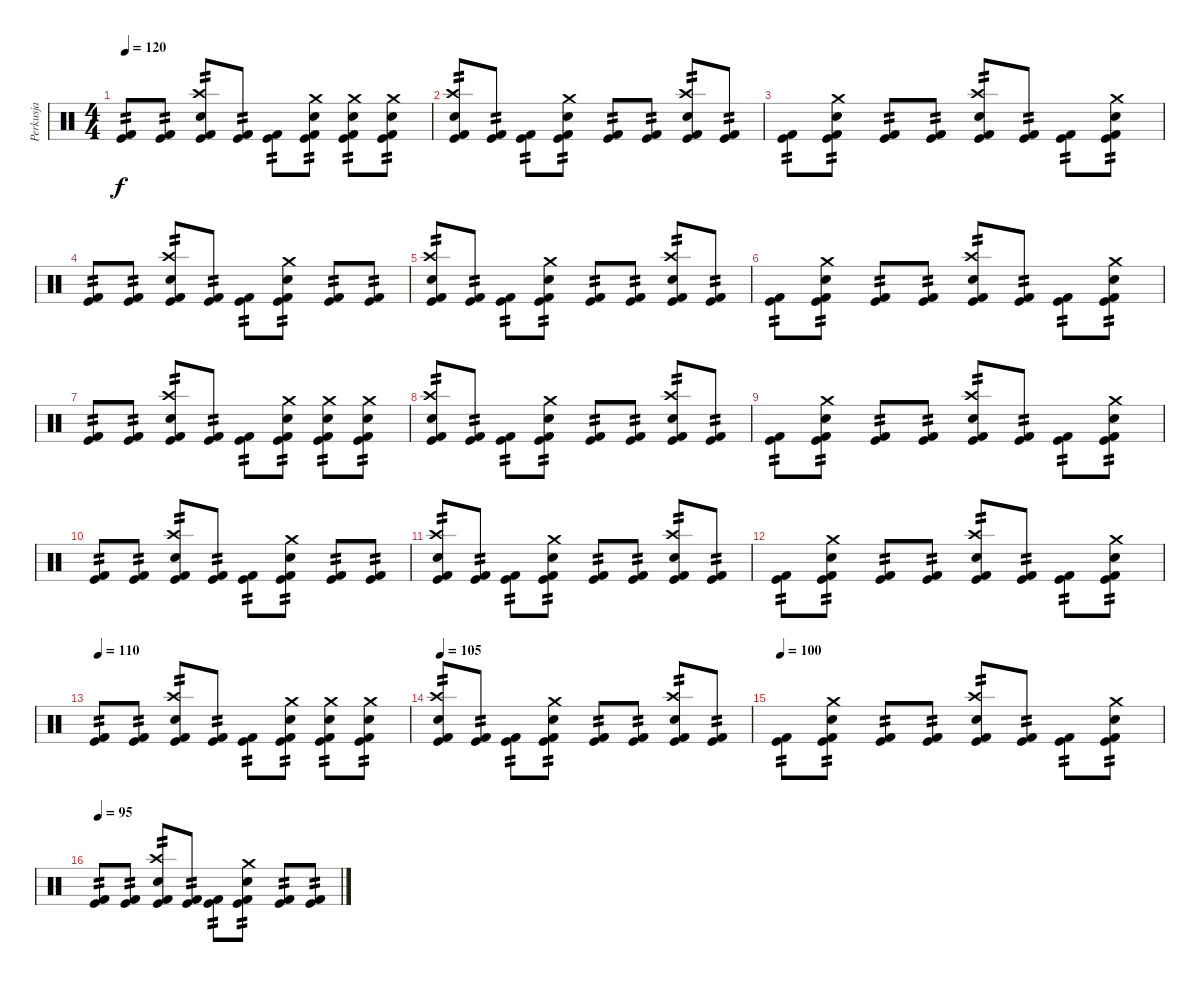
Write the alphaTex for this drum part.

\track ("Perkusja" "Perkusja") {instrument percussion}
\staff {score}
\articulation defaults
\ts (4 4)
\tempo 120
\clef neutral
\ks c
("Kick (hit) 2" "Kick (hit)").8{tp 2 dy f} ("Kick (hit) 2" "Kick (hit)").8{tp 2} ("Kick (hit) 2" "Crash high (hit)" "Kick (hit)" "Snare (hit) 2").8{tp 2} ("Kick (hit) 2" "Kick (hit)").8{tp 2} ("Kick (hit) 2" "Kick (hit)").8{tp 2} ("Kick (hit) 2" "Crash medium (hit)" "Kick (hit)" "Snare (hit) 2").8{tp 2} ("Kick (hit) 2" "Crash medium (hit)" "Kick (hit)" "Snare (hit) 2").8{tp 2} ("Kick (hit) 2" "Crash medium (hit)" "Kick (hit)" "Snare (hit) 2").8{tp 2} |
("Kick (hit) 2" "Crash high (hit)" "Kick (hit)" "Snare (hit) 2").8{tp 2} ("Kick (hit) 2" "Kick (hit)").8{tp 2} ("Kick (hit) 2" "Kick (hit)").8{tp 2} ("Kick (hit) 2" "Crash medium (hit)" "Kick (hit)" "Snare (hit) 2").8{tp 2} ("Kick (hit) 2" "Kick (hit)").8{tp 2} ("Kick (hit) 2" "Kick (hit)").8{tp 2} ("Kick (hit) 2" "Crash high (hit)" "Kick (hit)" "Snare (hit) 2").8{tp 2} ("Kick (hit) 2" "Kick (hit)").8{tp 2} |
("Kick (hit) 2" "Kick (hit)").8{tp 2} ("Kick (hit) 2" "Crash medium (hit)" "Kick (hit)" "Snare (hit) 2").8{tp 2} ("Kick (hit) 2" "Kick (hit)").8{tp 2} ("Kick (hit) 2" "Kick (hit)").8{tp 2} ("Kick (hit) 2" "Crash high (hit)" "Kick (hit)" "Snare (hit) 2").8{tp 2} ("Kick (hit) 2" "Kick (hit)").8{tp 2} ("Kick (hit) 2" "Kick (hit)").8{tp 2} ("Kick (hit) 2" "Crash medium (hit)" "Kick (hit)" "Snare (hit) 2").8{tp 2} |
("Kick (hit) 2" "Kick (hit)").8{tp 2} ("Kick (hit) 2" "Kick (hit)").8{tp 2} ("Kick (hit) 2" "Crash high (hit)" "Kick (hit)" "Snare (hit) 2").8{tp 2} ("Kick (hit) 2" "Kick (hit)").8{tp 2} ("Kick (hit) 2" "Kick (hit)").8{tp 2} ("Kick (hit) 2" "Crash medium (hit)" "Kick (hit)" "Snare (hit) 2").8{tp 2} ("Kick (hit) 2" "Kick (hit)").8{tp 2} ("Kick (hit) 2" "Kick (hit)").8{tp 2} |
("Kick (hit) 2" "Crash high (hit)" "Kick (hit)" "Snare (hit) 2").8{tp 2} ("Kick (hit) 2" "Kick (hit)").8{tp 2} ("Kick (hit) 2" "Kick (hit)").8{tp 2} ("Kick (hit) 2" "Crash medium (hit)" "Kick (hit)" "Snare (hit) 2").8{tp 2} ("Kick (hit) 2" "Kick (hit)").8{tp 2} ("Kick (hit) 2" "Kick (hit)").8{tp 2} ("Kick (hit) 2" "Crash high (hit)" "Kick (hit)" "Snare (hit) 2").8{tp 2} ("Kick (hit) 2" "Kick (hit)").8{tp 2} |
("Kick (hit) 2" "Kick (hit)").8{tp 2} ("Kick (hit) 2" "Crash medium (hit)" "Kick (hit)" "Snare (hit) 2").8{tp 2} ("Kick (hit) 2" "Kick (hit)").8{tp 2} ("Kick (hit) 2" "Kick (hit)").8{tp 2} ("Kick (hit) 2" "Crash high (hit)" "Kick (hit)" "Snare (hit) 2").8{tp 2} ("Kick (hit) 2" "Kick (hit)").8{tp 2} ("Kick (hit) 2" "Kick (hit)").8{tp 2} ("Kick (hit) 2" "Crash medium (hit)" "Kick (hit)" "Snare (hit) 2").8{tp 2} |
("Kick (hit) 2" "Kick (hit)").8{tp 2} ("Kick (hit) 2" "Kick (hit)").8{tp 2} ("Kick (hit) 2" "Crash high (hit)" "Kick (hit)" "Snare (hit) 2").8{tp 2} ("Kick (hit) 2" "Kick (hit)").8{tp 2} ("Kick (hit) 2" "Kick (hit)").8{tp 2} ("Kick (hit) 2" "Crash medium (hit)" "Kick (hit)" "Snare (hit) 2").8{tp 2} ("Kick (hit) 2" "Crash medium (hit)" "Kick (hit)" "Snare (hit) 2").8{tp 2} ("Kick (hit) 2" "Crash medium (hit)" "Kick (hit)" "Snare (hit) 2").8{tp 2} |
("Kick (hit) 2" "Crash high (hit)" "Kick (hit)" "Snare (hit) 2").8{tp 2} ("Kick (hit) 2" "Kick (hit)").8{tp 2} ("Kick (hit) 2" "Kick (hit)").8{tp 2} ("Kick (hit) 2" "Crash medium (hit)" "Kick (hit)" "Snare (hit) 2").8{tp 2} ("Kick (hit) 2" "Kick (hit)").8{tp 2} ("Kick (hit) 2" "Kick (hit)").8{tp 2} ("Kick (hit) 2" "Crash high (hit)" "Kick (hit)" "Snare (hit) 2").8{tp 2} ("Kick (hit) 2" "Kick (hit)").8{tp 2} |
("Kick (hit) 2" "Kick (hit)").8{tp 2} ("Kick (hit) 2" "Crash medium (hit)" "Kick (hit)" "Snare (hit) 2").8{tp 2} ("Kick (hit) 2" "Kick (hit)").8{tp 2} ("Kick (hit) 2" "Kick (hit)").8{tp 2} ("Kick (hit) 2" "Crash high (hit)" "Kick (hit)" "Snare (hit) 2").8{tp 2} ("Kick (hit) 2" "Kick (hit)").8{tp 2} ("Kick (hit) 2" "Kick (hit)").8{tp 2} ("Kick (hit) 2" "Crash medium (hit)" "Kick (hit)" "Snare (hit) 2").8{tp 2} |
("Kick (hit) 2" "Kick (hit)").8{tp 2} ("Kick (hit) 2" "Kick (hit)").8{tp 2} ("Kick (hit) 2" "Crash high (hit)" "Kick (hit)" "Snare (hit) 2").8{tp 2} ("Kick (hit) 2" "Kick (hit)").8{tp 2} ("Kick (hit) 2" "Kick (hit)").8{tp 2} ("Kick (hit) 2" "Crash medium (hit)" "Kick (hit)" "Snare (hit) 2").8{tp 2} ("Kick (hit) 2" "Kick (hit)").8{tp 2} ("Kick (hit) 2" "Kick (hit)").8{tp 2} |
("Kick (hit) 2" "Crash high (hit)" "Kick (hit)" "Snare (hit) 2").8{tp 2} ("Kick (hit) 2" "Kick (hit)").8{tp 2} ("Kick (hit) 2" "Kick (hit)").8{tp 2} ("Kick (hit) 2" "Crash medium (hit)" "Kick (hit)" "Snare (hit) 2").8{tp 2} ("Kick (hit) 2" "Kick (hit)").8{tp 2} ("Kick (hit) 2" "Kick (hit)").8{tp 2} ("Kick (hit) 2" "Crash high (hit)" "Kick (hit)" "Snare (hit) 2").8{tp 2} ("Kick (hit) 2" "Kick (hit)").8{tp 2} |
("Kick (hit) 2" "Kick (hit)").8{tp 2} ("Kick (hit) 2" "Crash medium (hit)" "Kick (hit)" "Snare (hit) 2").8{tp 2} ("Kick (hit) 2" "Kick (hit)").8{tp 2} ("Kick (hit) 2" "Kick (hit)").8{tp 2} ("Kick (hit) 2" "Crash high (hit)" "Kick (hit)" "Snare (hit) 2").8{tp 2} ("Kick (hit) 2" "Kick (hit)").8{tp 2} ("Kick (hit) 2" "Kick (hit)").8{tp 2} ("Kick (hit) 2" "Crash medium (hit)" "Kick (hit)" "Snare (hit) 2").8{tp 2} |
\tempo 110
("Kick (hit) 2" "Kick (hit)").8{tp 2} ("Kick (hit) 2" "Kick (hit)").8{tp 2} ("Kick (hit) 2" "Crash high (hit)" "Kick (hit)" "Snare (hit) 2").8{tp 2} ("Kick (hit) 2" "Kick (hit)").8{tp 2} ("Kick (hit) 2" "Kick (hit)").8{tp 2} ("Kick (hit) 2" "Crash medium (hit)" "Kick (hit)" "Snare (hit) 2").8{tp 2} ("Kick (hit) 2" "Crash medium (hit)" "Kick (hit)" "Snare (hit) 2").8{tp 2} ("Kick (hit) 2" "Crash medium (hit)" "Kick (hit)" "Snare (hit) 2").8{tp 2} |
\tempo 105
("Kick (hit) 2" "Crash high (hit)" "Kick (hit)" "Snare (hit) 2").8{tp 2} ("Kick (hit) 2" "Kick (hit)").8{tp 2} ("Kick (hit) 2" "Kick (hit)").8{tp 2} ("Kick (hit) 2" "Crash medium (hit)" "Kick (hit)" "Snare (hit) 2").8{tp 2} ("Kick (hit) 2" "Kick (hit)").8{tp 2} ("Kick (hit) 2" "Kick (hit)").8{tp 2} ("Kick (hit) 2" "Crash high (hit)" "Kick (hit)" "Snare (hit) 2").8{tp 2} ("Kick (hit) 2" "Kick (hit)").8{tp 2} |
\tempo 100
("Kick (hit) 2" "Kick (hit)").8{tp 2} ("Kick (hit) 2" "Crash medium (hit)" "Kick (hit)" "Snare (hit) 2").8{tp 2} ("Kick (hit) 2" "Kick (hit)").8{tp 2} ("Kick (hit) 2" "Kick (hit)").8{tp 2} ("Kick (hit) 2" "Crash high (hit)" "Kick (hit)" "Snare (hit) 2").8{tp 2} ("Kick (hit) 2" "Kick (hit)").8{tp 2} ("Kick (hit) 2" "Kick (hit)").8{tp 2} ("Kick (hit) 2" "Crash medium (hit)" "Kick (hit)" "Snare (hit) 2").8{tp 2} |
\tempo 95
("Kick (hit) 2" "Kick (hit)").8{tp 2} ("Kick (hit) 2" "Kick (hit)").8{tp 2} ("Kick (hit) 2" "Crash high (hit)" "Kick (hit)" "Snare (hit) 2").8{tp 2} ("Kick (hit) 2" "Kick (hit)").8{tp 2} ("Kick (hit) 2" "Kick (hit)").8{tp 2} ("Kick (hit) 2" "Crash medium (hit)" "Kick (hit)" "Snare (hit) 2").8{tp 2} ("Kick (hit) 2" "Kick (hit)").8{tp 2} ("Kick (hit) 2" "Kick (hit)").8{tp 2}
